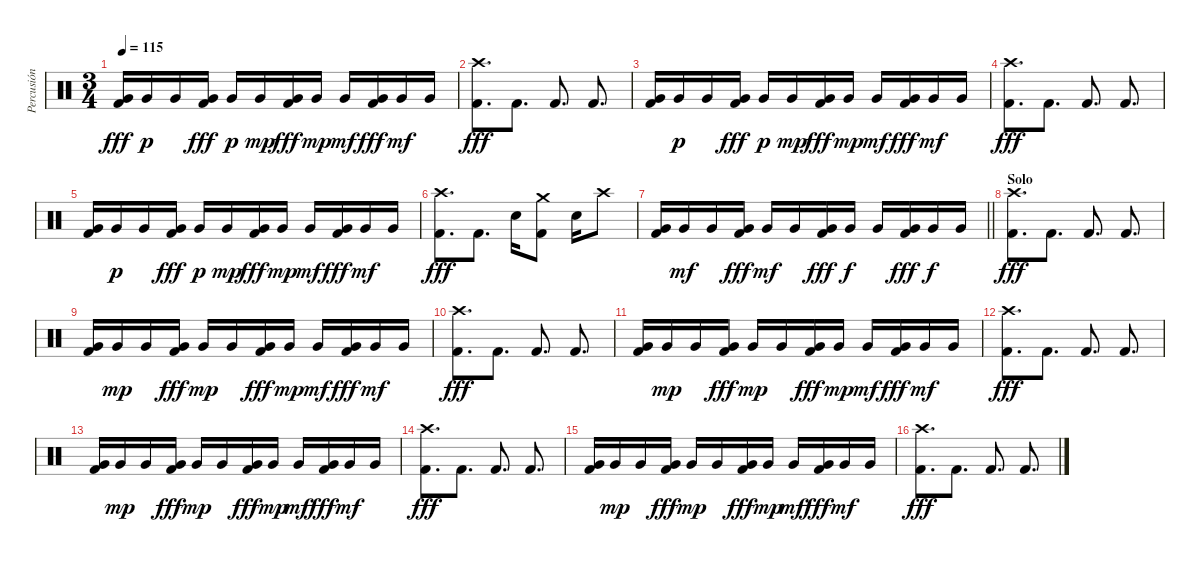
\track ("Percusión" "Percusión") {instrument percussion}
\staff {score}
\articulation defaults
\ts (3 4)
\tempo 115
\clef neutral
\ks c
("Very Low Tom (hit)" "Kick (hit) 2").16{dy fff} "Very Low Tom (hit)".16{dy p} "Very Low Tom (hit)".16 ("Very Low Tom (hit)" "Kick (hit) 2").16{dy fff} "Very Low Tom (hit)".16{dy p} "Very Low Tom (hit)".16{dy mp} ("Very Low Tom (hit)" "Kick (hit) 2").16{dy fff} "Very Low Tom (hit)".16{dy mp} "Very Low Tom (hit)".16{dy mf} ("Very Low Tom (hit)" "Kick (hit) 2").16{dy fff} "Very Low Tom (hit)".16{dy mf} "Very Low Tom (hit)".16 |
("Crash high (hit)" "Kick (hit) 2").8{d dy fff} "Kick (hit) 2".8{d} "Kick (hit) 2".8{d} "Kick (hit) 2".8{d} |
("Very Low Tom (hit)" "Kick (hit) 2").16 "Very Low Tom (hit)".16{dy p} "Very Low Tom (hit)".16 ("Very Low Tom (hit)" "Kick (hit) 2").16{dy fff} "Very Low Tom (hit)".16{dy p} "Very Low Tom (hit)".16{dy mp} ("Very Low Tom (hit)" "Kick (hit) 2").16{dy fff} "Very Low Tom (hit)".16{dy mp} "Very Low Tom (hit)".16{dy mf} ("Very Low Tom (hit)" "Kick (hit) 2").16{dy fff} "Very Low Tom (hit)".16{dy mf} "Very Low Tom (hit)".16 |
("Crash high (hit)" "Kick (hit) 2").8{d dy fff} "Kick (hit) 2".8{d} "Kick (hit) 2".8{d} "Kick (hit) 2".8{d} |
("Very Low Tom (hit)" "Kick (hit) 2").16 "Very Low Tom (hit)".16{dy p} "Very Low Tom (hit)".16 ("Very Low Tom (hit)" "Kick (hit) 2").16{dy fff} "Very Low Tom (hit)".16{dy p} "Very Low Tom (hit)".16{dy mp} ("Very Low Tom (hit)" "Kick (hit) 2").16{dy fff} "Very Low Tom (hit)".16{dy mp} "Very Low Tom (hit)".16{dy mf} ("Very Low Tom (hit)" "Kick (hit) 2").16{dy fff} "Very Low Tom (hit)".16{dy mf} "Very Low Tom (hit)".16 |
("Crash high (hit)" "Kick (hit) 2").8{d dy fff} "Kick (hit) 2".8{d} "Electric Snare (hit)".16 ("Crash medium (hit)" "Kick (hit) 2").8 "Electric Snare (hit)".16 "Crash high (hit)".8 |
\barLineRight lightlight
("Very Low Tom (hit)" "Kick (hit) 2").16 "Very Low Tom (hit)".16{dy mf} "Very Low Tom (hit)".16 ("Very Low Tom (hit)" "Kick (hit) 2").16{dy fff} "Very Low Tom (hit)".16{dy mf} "Very Low Tom (hit)".16 ("Very Low Tom (hit)" "Kick (hit) 2").16{dy fff} "Very Low Tom (hit)".16{dy f} "Very Low Tom (hit)".16 ("Very Low Tom (hit)" "Kick (hit) 2").16{dy fff} "Very Low Tom (hit)".16{dy f} "Very Low Tom (hit)".16 |
\section ("" "Solo")
("Crash high (hit)" "Kick (hit) 2").8{d dy fff} "Kick (hit) 2".8{d} "Kick (hit) 2".8{d} "Kick (hit) 2".8{d} |
("Very Low Tom (hit)" "Kick (hit) 2").16 "Very Low Tom (hit)".16{dy mp} "Very Low Tom (hit)".16 ("Very Low Tom (hit)" "Kick (hit) 2").16{dy fff} "Very Low Tom (hit)".16{dy mp} "Very Low Tom (hit)".16 ("Very Low Tom (hit)" "Kick (hit) 2").16{dy fff} "Very Low Tom (hit)".16{dy mp} "Very Low Tom (hit)".16{dy mf} ("Very Low Tom (hit)" "Kick (hit) 2").16{dy fff} "Very Low Tom (hit)".16{dy mf} "Very Low Tom (hit)".16 |
("Crash high (hit)" "Kick (hit) 2").8{d dy fff} "Kick (hit) 2".8{d} "Kick (hit) 2".8{d} "Kick (hit) 2".8{d} |
("Very Low Tom (hit)" "Kick (hit) 2").16 "Very Low Tom (hit)".16{dy mp} "Very Low Tom (hit)".16 ("Very Low Tom (hit)" "Kick (hit) 2").16{dy fff} "Very Low Tom (hit)".16{dy mp} "Very Low Tom (hit)".16 ("Very Low Tom (hit)" "Kick (hit) 2").16{dy fff} "Very Low Tom (hit)".16{dy mp} "Very Low Tom (hit)".16{dy mf} ("Very Low Tom (hit)" "Kick (hit) 2").16{dy fff} "Very Low Tom (hit)".16{dy mf} "Very Low Tom (hit)".16 |
("Crash high (hit)" "Kick (hit) 2").8{d dy fff} "Kick (hit) 2".8{d} "Kick (hit) 2".8{d} "Kick (hit) 2".8{d} |
("Very Low Tom (hit)" "Kick (hit) 2").16 "Very Low Tom (hit)".16{dy mp} "Very Low Tom (hit)".16 ("Very Low Tom (hit)" "Kick (hit) 2").16{dy fff} "Very Low Tom (hit)".16{dy mp} "Very Low Tom (hit)".16 ("Very Low Tom (hit)" "Kick (hit) 2").16{dy fff} "Very Low Tom (hit)".16{dy mp} "Very Low Tom (hit)".16{dy mf} ("Very Low Tom (hit)" "Kick (hit) 2").16{dy fff} "Very Low Tom (hit)".16{dy mf} "Very Low Tom (hit)".16 |
("Crash high (hit)" "Kick (hit) 2").8{d dy fff} "Kick (hit) 2".8{d} "Kick (hit) 2".8{d} "Kick (hit) 2".8{d} |
("Very Low Tom (hit)" "Kick (hit) 2").16 "Very Low Tom (hit)".16{dy mp} "Very Low Tom (hit)".16 ("Very Low Tom (hit)" "Kick (hit) 2").16{dy fff} "Very Low Tom (hit)".16{dy mp} "Very Low Tom (hit)".16 ("Very Low Tom (hit)" "Kick (hit) 2").16{dy fff} "Very Low Tom (hit)".16{dy mp} "Very Low Tom (hit)".16{dy mf} ("Very Low Tom (hit)" "Kick (hit) 2").16{dy fff} "Very Low Tom (hit)".16{dy mf} "Very Low Tom (hit)".16 |
("Crash high (hit)" "Kick (hit) 2").8{d dy fff} "Kick (hit) 2".8{d} "Kick (hit) 2".8{d} "Kick (hit) 2".8{d}
